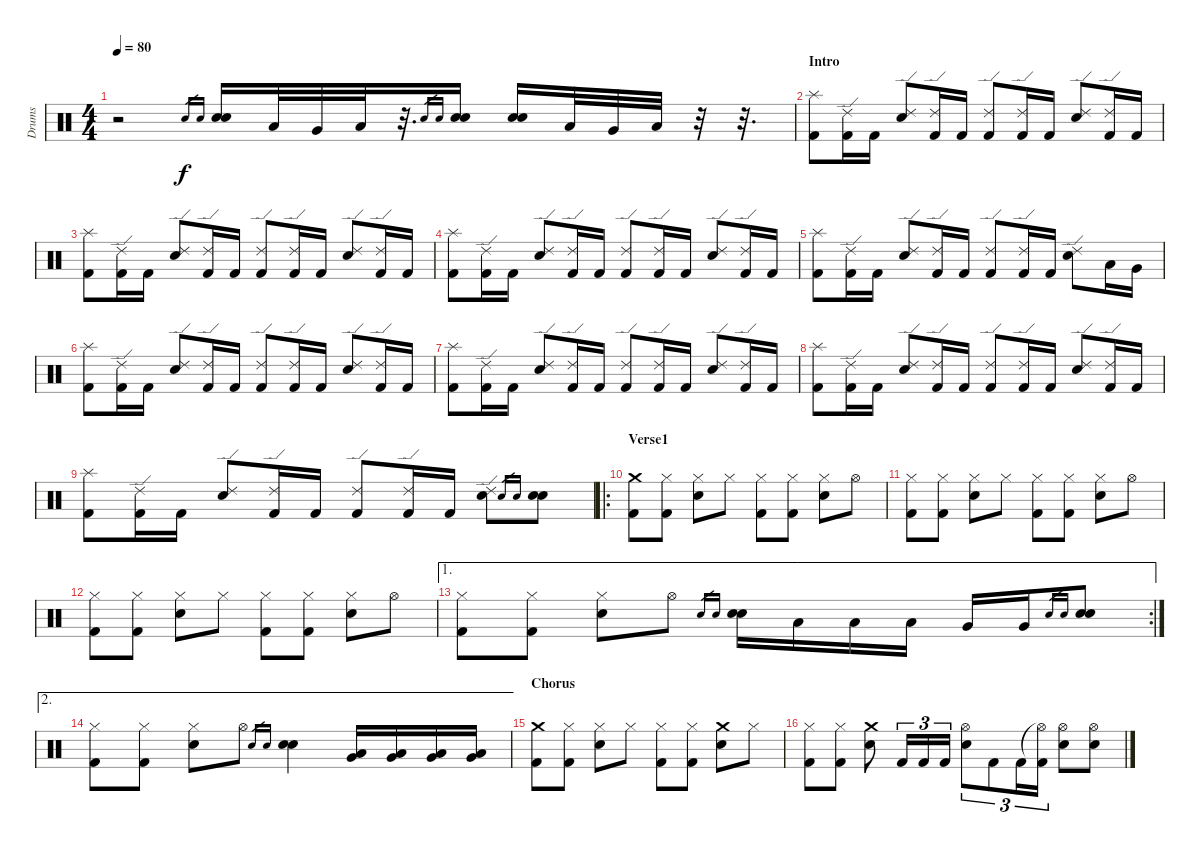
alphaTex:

\track ("Drums" "Drums") {instrument percussion}
\staff {score}
\articulation defaults
\ts (4 4)
\tempo 80
\clef neutral
\ks c
r.2{dy f} "Snare (hit) 2".16{gr} "Snare (hit) 2".16{gr} ("Snare (hit) 2" "Snare (hit) 2").16 "Low Tom (hit)".32 "Very Low Tom (hit)".32 "Low Floor Tom (hit)".32 r.32{d} "Snare (hit) 2".16{gr} "Snare (hit) 2".16{gr} ("Snare (hit) 2" "Snare (hit) 2").16 ("Snare (hit) 2" "Snare (hit) 2").16 "Low Tom (hit)".32 "Very Low Tom (hit)".32 "Low Floor Tom (hit)".32 r.32 r.32{d} |
\section ("" "Intro")
("Splash (hit)" "Kick (hit) 2").8 ("Ride (edge) 2" "Kick (hit) 2").16 "Kick (hit) 2".16 ("Ride (edge) 2" "Snare (hit) 2").8 ("Ride (edge) 2" "Kick (hit) 2").16 "Kick (hit) 2".16 ("Ride (edge) 2" "Kick (hit) 2").8 ("Ride (edge) 2" "Kick (hit) 2").16 "Kick (hit) 2".16 ("Ride (edge) 2" "Snare (hit) 2").8 ("Ride (edge) 2" "Kick (hit) 2").16 "Kick (hit) 2".16 |
("Splash (hit)" "Kick (hit) 2").8 ("Ride (edge) 2" "Kick (hit) 2").16 "Kick (hit) 2".16 ("Ride (edge) 2" "Snare (hit) 2").8 ("Ride (edge) 2" "Kick (hit) 2").16 "Kick (hit) 2".16 ("Ride (edge) 2" "Kick (hit) 2").8 ("Ride (edge) 2" "Kick (hit) 2").16 "Kick (hit) 2".16 ("Ride (edge) 2" "Snare (hit) 2").8 ("Ride (edge) 2" "Kick (hit) 2").16 "Kick (hit) 2".16 |
("Splash (hit)" "Kick (hit) 2").8 ("Ride (edge) 2" "Kick (hit) 2").16 "Kick (hit) 2".16 ("Ride (edge) 2" "Snare (hit) 2").8 ("Ride (edge) 2" "Kick (hit) 2").16 "Kick (hit) 2".16 ("Ride (edge) 2" "Kick (hit) 2").8 ("Ride (edge) 2" "Kick (hit) 2").16 "Kick (hit) 2".16 ("Ride (edge) 2" "Snare (hit) 2").8 ("Ride (edge) 2" "Kick (hit) 2").16 "Kick (hit) 2".16 |
("Splash (hit)" "Kick (hit) 2").8 ("Ride (edge) 2" "Kick (hit) 2").16 "Kick (hit) 2".16 ("Ride (edge) 2" "Snare (hit) 2").8 ("Ride (edge) 2" "Kick (hit) 2").16 "Kick (hit) 2".16 ("Ride (edge) 2" "Kick (hit) 2").8 ("Ride (edge) 2" "Kick (hit) 2").16 "Kick (hit) 2".16 ("Ride (edge) 2" "Snare (hit) 2").8 "Low Tom (hit)".16 "Very Low Tom (hit)".16 |
("Splash (hit)" "Kick (hit) 2").8 ("Ride (edge) 2" "Kick (hit) 2").16 "Kick (hit) 2".16 ("Ride (edge) 2" "Snare (hit) 2").8 ("Ride (edge) 2" "Kick (hit) 2").16 "Kick (hit) 2".16 ("Ride (edge) 2" "Kick (hit) 2").8 ("Ride (edge) 2" "Kick (hit) 2").16 "Kick (hit) 2".16 ("Ride (edge) 2" "Snare (hit) 2").8 ("Ride (edge) 2" "Kick (hit) 2").16 "Kick (hit) 2".16 |
("Splash (hit)" "Kick (hit) 2").8 ("Ride (edge) 2" "Kick (hit) 2").16 "Kick (hit) 2".16 ("Ride (edge) 2" "Snare (hit) 2").8 ("Ride (edge) 2" "Kick (hit) 2").16 "Kick (hit) 2".16 ("Ride (edge) 2" "Kick (hit) 2").8 ("Ride (edge) 2" "Kick (hit) 2").16 "Kick (hit) 2".16 ("Ride (edge) 2" "Snare (hit) 2").8 ("Ride (edge) 2" "Kick (hit) 2").16 "Kick (hit) 2".16 |
("Splash (hit)" "Kick (hit) 2").8 ("Ride (edge) 2" "Kick (hit) 2").16 "Kick (hit) 2".16 ("Ride (edge) 2" "Snare (hit) 2").8 ("Ride (edge) 2" "Kick (hit) 2").16 "Kick (hit) 2".16 ("Ride (edge) 2" "Kick (hit) 2").8 ("Ride (edge) 2" "Kick (hit) 2").16 "Kick (hit) 2".16 ("Ride (edge) 2" "Snare (hit) 2").8 ("Ride (edge) 2" "Kick (hit) 2").16 "Kick (hit) 2".16 |
("Splash (hit)" "Kick (hit) 2").8 ("Ride (edge) 2" "Kick (hit) 2").16 "Kick (hit) 2".16 ("Ride (edge) 2" "Snare (hit) 2").8 ("Ride (edge) 2" "Kick (hit) 2").16 "Kick (hit) 2".16 ("Ride (edge) 2" "Kick (hit) 2").8 ("Ride (edge) 2" "Kick (hit) 2").16 "Kick (hit) 2".16 ("Ride (edge) 2" "Snare (hit) 2").8 "Snare (hit) 2".16{gr} "Snare (hit) 2".16{gr} ("Snare (hit) 2" "Snare (hit) 2").8 |
\ro
\section ("" "Verse1")
("Crash medium (hit)" "Kick (hit) 2").8 ("Hi-Hat (closed)" "Kick (hit) 2").8 ("Hi-Hat (closed)" "Snare (hit) 2").8 "Hi-Hat (closed)".8 ("Hi-Hat (closed)" "Kick (hit) 2").8 ("Hi-Hat (closed)" "Kick (hit) 2").8 ("Hi-Hat (closed)" "Snare (hit) 2").8 "Hi-Hat (open)".8 |
("Hi-Hat (closed)" "Kick (hit) 2").8 ("Hi-Hat (closed)" "Kick (hit) 2").8 ("Hi-Hat (closed)" "Snare (hit) 2").8 "Hi-Hat (closed)".8 ("Hi-Hat (closed)" "Kick (hit) 2").8 ("Hi-Hat (closed)" "Kick (hit) 2").8 ("Hi-Hat (closed)" "Snare (hit) 2").8 "Hi-Hat (open)".8 |
("Hi-Hat (closed)" "Kick (hit) 2").8 ("Hi-Hat (closed)" "Kick (hit) 2").8 ("Hi-Hat (closed)" "Snare (hit) 2").8 "Hi-Hat (closed)".8 ("Hi-Hat (closed)" "Kick (hit) 2").8 ("Hi-Hat (closed)" "Kick (hit) 2").8 ("Hi-Hat (closed)" "Snare (hit) 2").8 "Hi-Hat (open)".8 |
\ae 1
\rc 2
("Hi-Hat (closed)" "Kick (hit) 2").8 ("Hi-Hat (closed)" "Kick (hit) 2").8 ("Hi-Hat (closed)" "Snare (hit) 2").8 "Hi-Hat (open)".8 "Snare (hit) 2".16{gr} "Snare (hit) 2".16{gr} ("Snare (hit) 2" "Snare (hit) 2").16 "Low Tom (hit)".16 "Low Tom (hit)".16 "Low Tom (hit)".16 "Very Low Tom (hit)".16 "Very Low Tom (hit)".16 "Snare (hit) 2".16{gr} "Snare (hit) 2".16{gr} ("Snare (hit) 2" "Snare (hit) 2").8 |
\ae 2
("Hi-Hat (closed)" "Kick (hit) 2").8 ("Hi-Hat (closed)" "Kick (hit) 2").8 ("Hi-Hat (closed)" "Snare (hit) 2").8 "Hi-Hat (open)".8 "Snare (hit) 2".16{gr} "Snare (hit) 2".16{gr} ("Snare (hit) 2" "Snare (hit) 2").4 ("Low Tom (hit)" "Very Low Tom (hit)").16 ("Low Tom (hit)" "Very Low Tom (hit)").16 ("Low Tom (hit)" "Very Low Tom (hit)").16 ("Low Tom (hit)" "Very Low Tom (hit)").16 |
\section ("" "Chorus")
("Crash medium (hit)" "Kick (hit) 2").8 ("Hi-Hat (closed)" "Kick (hit) 2").8 ("Hi-Hat (closed)" "Snare (hit) 2").8 "Hi-Hat (closed)".8 ("Hi-Hat (closed)" "Kick (hit) 2").8 ("Hi-Hat (closed)" "Kick (hit) 2").8 ("Crash medium (hit)" "Snare (hit) 2").8 "Hi-Hat (closed)".8 |
("Hi-Hat (closed)" "Kick (hit) 2").8 ("Hi-Hat (closed)" "Kick (hit) 2").8 ("Crash medium (hit)" "Snare (hit) 2").8 "Kick (hit) 2".16{tu (3 2)} "Kick (hit) 2".16{tu (3 2)} "Kick (hit) 2".16{tu (3 2)} ("Hi-Hat (open)" "Snare (hit) 2").8{tu (3 2)} "Kick (hit) 2".8{tu (3 2)} "Kick (hit) 2".16{tu (3 2)} ("Hi-Hat (open)"{t} "Kick (hit) 2").16{tu (3 2)} ("Hi-Hat (open)" "Snare (hit) 2").8 ("Hi-Hat (open)" "Snare (hit) 2").8
